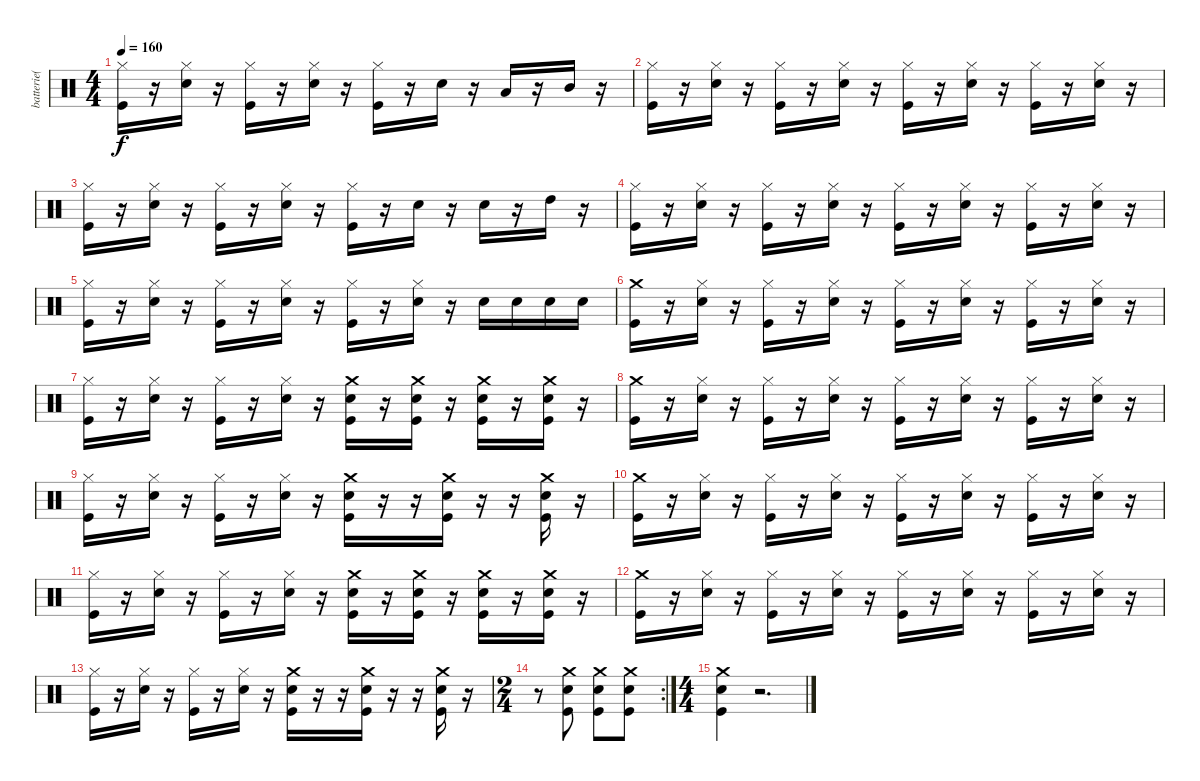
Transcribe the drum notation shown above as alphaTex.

\track ("batterie( Megger )" "batterie( ") {instrument percussion}
\staff {score}
\articulation defaults
\ts (4 4)
\tempo 160
\clef neutral
\ks c
("Hi-Hat (closed)" "Kick (hit)").16{dy f} r.16 ("Hi-Hat (closed)" "Snare (hit) 2").16 r.16 ("Hi-Hat (closed)" "Kick (hit)").16 r.16 ("Hi-Hat (closed)" "Snare (hit) 2").16 r.16 ("Hi-Hat (closed)" "Kick (hit)").16 r.16 "Snare (hit) 2".16 r.16 "Low Floor Tom (hit)".16 r.16 "Mid Tom (hit)".16 r.16 |
("Hi-Hat (closed)" "Kick (hit)").16 r.16 ("Hi-Hat (closed)" "Snare (hit) 2").16 r.16 ("Hi-Hat (closed)" "Kick (hit)").16 r.16 ("Hi-Hat (closed)" "Snare (hit) 2").16 r.16 ("Hi-Hat (closed)" "Kick (hit)").16 r.16 ("Hi-Hat (closed)" "Snare (hit) 2").16 r.16 ("Hi-Hat (closed)" "Kick (hit)").16 r.16 ("Hi-Hat (closed)" "Snare (hit) 2").16 r.16 |
("Hi-Hat (closed)" "Kick (hit)").16 r.16 ("Hi-Hat (closed)" "Snare (hit) 2").16 r.16 ("Hi-Hat (closed)" "Kick (hit)").16 r.16 ("Hi-Hat (closed)" "Snare (hit) 2").16 r.16 ("Hi-Hat (closed)" "Kick (hit)").16 r.16 "Snare (hit) 2".16 r.16 "Snare (hit) 2".16 r.16 "High Tom (hit)".16 r.16 |
("Hi-Hat (closed)" "Kick (hit)").16 r.16 ("Hi-Hat (closed)" "Snare (hit) 2").16 r.16 ("Hi-Hat (closed)" "Kick (hit)").16 r.16 ("Hi-Hat (closed)" "Snare (hit) 2").16 r.16 ("Hi-Hat (closed)" "Kick (hit)").16 r.16 ("Hi-Hat (closed)" "Snare (hit) 2").16 r.16 ("Hi-Hat (closed)" "Kick (hit)").16 r.16 ("Hi-Hat (closed)" "Snare (hit) 2").16 r.16 |
("Hi-Hat (closed)" "Kick (hit)").16 r.16 ("Hi-Hat (closed)" "Snare (hit) 2").16 r.16 ("Hi-Hat (closed)" "Kick (hit)").16 r.16 ("Hi-Hat (closed)" "Snare (hit) 2").16 r.16 ("Hi-Hat (closed)" "Kick (hit)").16 r.16 ("Hi-Hat (closed)" "Snare (hit) 2").16 r.16 "Snare (hit) 2".16 "Snare (hit) 2".16 "Snare (hit) 2".16 "Snare (hit) 2".16 |
("Crash medium (hit)" "Kick (hit)").16 r.16 ("Hi-Hat (closed)" "Snare (hit) 2").16 r.16 ("Hi-Hat (closed)" "Kick (hit)").16 r.16 ("Hi-Hat (closed)" "Snare (hit) 2").16 r.16 ("Hi-Hat (closed)" "Kick (hit)").16 r.16 ("Hi-Hat (closed)" "Snare (hit) 2").16 r.16 ("Hi-Hat (closed)" "Kick (hit)").16 r.16 ("Hi-Hat (closed)" "Snare (hit) 2").16 r.16 |
("Hi-Hat (closed)" "Kick (hit)").16 r.16 ("Hi-Hat (closed)" "Snare (hit) 2").16 r.16 ("Hi-Hat (closed)" "Kick (hit)").16 r.16 ("Hi-Hat (closed)" "Snare (hit) 2").16 r.16 ("Crash medium (hit)" "Snare (hit) 2" "Kick (hit)").16 r.16 ("Crash medium (hit)" "Snare (hit) 2" "Kick (hit)").16 r.16 ("Crash medium (hit)" "Snare (hit) 2" "Kick (hit)").16 r.16 ("Crash medium (hit)" "Snare (hit) 2" "Kick (hit)").16 r.16 |
("Crash medium (hit)" "Kick (hit)").16 r.16 ("Hi-Hat (closed)" "Snare (hit) 2").16 r.16 ("Hi-Hat (closed)" "Kick (hit)").16 r.16 ("Hi-Hat (closed)" "Snare (hit) 2").16 r.16 ("Hi-Hat (closed)" "Kick (hit)").16 r.16 ("Hi-Hat (closed)" "Snare (hit) 2").16 r.16 ("Hi-Hat (closed)" "Kick (hit)").16 r.16 ("Hi-Hat (closed)" "Snare (hit) 2").16 r.16 |
("Hi-Hat (closed)" "Kick (hit)").16 r.16 ("Hi-Hat (closed)" "Snare (hit) 2").16 r.16 ("Hi-Hat (closed)" "Kick (hit)").16 r.16 ("Hi-Hat (closed)" "Snare (hit) 2").16 r.16 ("Crash medium (hit)" "Snare (hit) 2" "Kick (hit)").16 r.16 r.16 ("Crash medium (hit)" "Snare (hit) 2" "Kick (hit)").16 r.16 r.16 ("Crash medium (hit)" "Snare (hit) 2" "Kick (hit)").16 r.16 |
("Crash medium (hit)" "Kick (hit)").16 r.16 ("Hi-Hat (closed)" "Snare (hit) 2").16 r.16 ("Hi-Hat (closed)" "Kick (hit)").16 r.16 ("Hi-Hat (closed)" "Snare (hit) 2").16 r.16 ("Hi-Hat (closed)" "Kick (hit)").16 r.16 ("Hi-Hat (closed)" "Snare (hit) 2").16 r.16 ("Hi-Hat (closed)" "Kick (hit)").16 r.16 ("Hi-Hat (closed)" "Snare (hit) 2").16 r.16 |
("Hi-Hat (closed)" "Kick (hit)").16 r.16 ("Hi-Hat (closed)" "Snare (hit) 2").16 r.16 ("Hi-Hat (closed)" "Kick (hit)").16 r.16 ("Hi-Hat (closed)" "Snare (hit) 2").16 r.16 ("Crash medium (hit)" "Snare (hit) 2" "Kick (hit)").16 r.16 ("Crash medium (hit)" "Snare (hit) 2" "Kick (hit)").16 r.16 ("Crash medium (hit)" "Snare (hit) 2" "Kick (hit)").16 r.16 ("Crash medium (hit)" "Snare (hit) 2" "Kick (hit)").16 r.16 |
("Crash medium (hit)" "Kick (hit)").16 r.16 ("Hi-Hat (closed)" "Snare (hit) 2").16 r.16 ("Hi-Hat (closed)" "Kick (hit)").16 r.16 ("Hi-Hat (closed)" "Snare (hit) 2").16 r.16 ("Hi-Hat (closed)" "Kick (hit)").16 r.16 ("Hi-Hat (closed)" "Snare (hit) 2").16 r.16 ("Hi-Hat (closed)" "Kick (hit)").16 r.16 ("Hi-Hat (closed)" "Snare (hit) 2").16 r.16 |
("Hi-Hat (closed)" "Kick (hit)").16 r.16 ("Hi-Hat (closed)" "Snare (hit) 2").16 r.16 ("Hi-Hat (closed)" "Kick (hit)").16 r.16 ("Hi-Hat (closed)" "Snare (hit) 2").16 r.16 ("Crash medium (hit)" "Snare (hit) 2" "Kick (hit)").16 r.16 r.16 ("Crash medium (hit)" "Snare (hit) 2" "Kick (hit)").16 r.16 r.16 ("Crash medium (hit)" "Snare (hit) 2" "Kick (hit)").16 r.16 |
\rc 2
\ts (2 4)
r.8 ("Crash medium (hit)" "Snare (hit) 2" "Kick (hit)").8 ("Crash medium (hit)" "Snare (hit) 2" "Kick (hit)").8 ("Crash medium (hit)" "Snare (hit) 2" "Kick (hit)").8 |
\ts (4 4)
("Crash medium (hit)" "Snare (hit) 2" "Kick (hit)").4 r.2{d}
